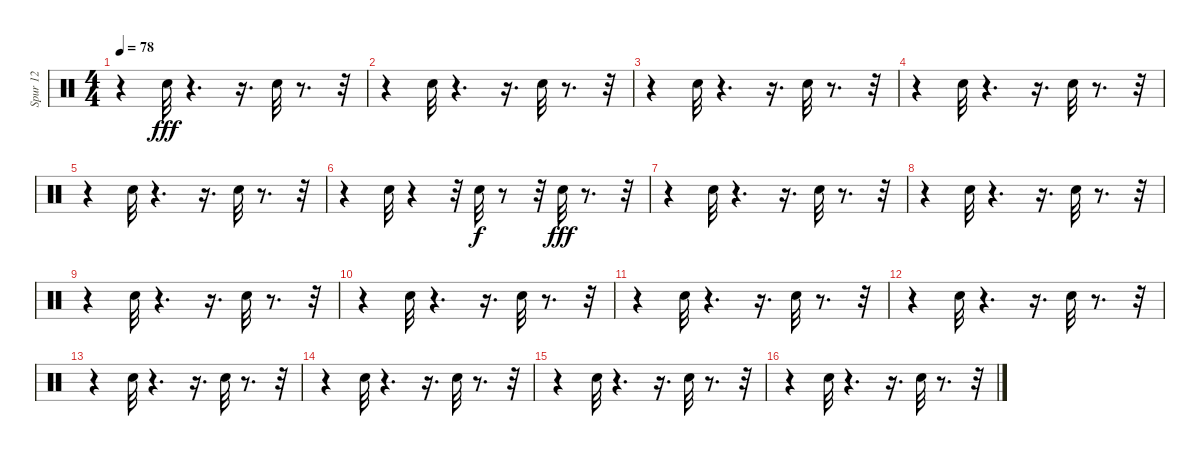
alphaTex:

\track ("Spur 12" "Spur 12") {instrument percussion}
\staff {score}
\articulation defaults
\ts (4 4)
\tempo 78
\clef neutral
\ks c
r.4{dy fff} "Electric Snare (hit)".32 r.4{d} r.16{d} "Electric Snare (hit)".32 r.8{d} r.32 |
r.4 "Electric Snare (hit)".32 r.4{d} r.16{d} "Electric Snare (hit)".32 r.8{d} r.32 |
r.4 "Electric Snare (hit)".32 r.4{d} r.16{d} "Electric Snare (hit)".32 r.8{d} r.32 |
r.4 "Electric Snare (hit)".32 r.4{d} r.16{d} "Electric Snare (hit)".32 r.8{d} r.32 |
r.4 "Electric Snare (hit)".32 r.4{d} r.16{d} "Electric Snare (hit)".32 r.8{d} r.32 |
r.4 "Electric Snare (hit)".32 r.4 r.32 "Electric Snare (hit)".32{dy f} r.8 r.32 "Electric Snare (hit)".32{dy fff} r.8{d} r.32 |
r.4 "Electric Snare (hit)".32 r.4{d} r.16{d} "Electric Snare (hit)".32 r.8{d} r.32 |
r.4 "Electric Snare (hit)".32 r.4{d} r.16{d} "Electric Snare (hit)".32 r.8{d} r.32 |
r.4 "Electric Snare (hit)".32 r.4{d} r.16{d} "Electric Snare (hit)".32 r.8{d} r.32 |
r.4 "Electric Snare (hit)".32 r.4{d} r.16{d} "Electric Snare (hit)".32 r.8{d} r.32 |
r.4 "Electric Snare (hit)".32 r.4{d} r.16{d} "Electric Snare (hit)".32 r.8{d} r.32 |
r.4 "Electric Snare (hit)".32 r.4{d} r.16{d} "Electric Snare (hit)".32 r.8{d} r.32 |
r.4 "Electric Snare (hit)".32 r.4{d} r.16{d} "Electric Snare (hit)".32 r.8{d} r.32 |
r.4 "Electric Snare (hit)".32 r.4{d} r.16{d} "Electric Snare (hit)".32 r.8{d} r.32 |
r.4 "Electric Snare (hit)".32 r.4{d} r.16{d} "Electric Snare (hit)".32 r.8{d} r.32 |
r.4 "Electric Snare (hit)".32 r.4{d} r.16{d} "Electric Snare (hit)".32 r.8{d} r.32
